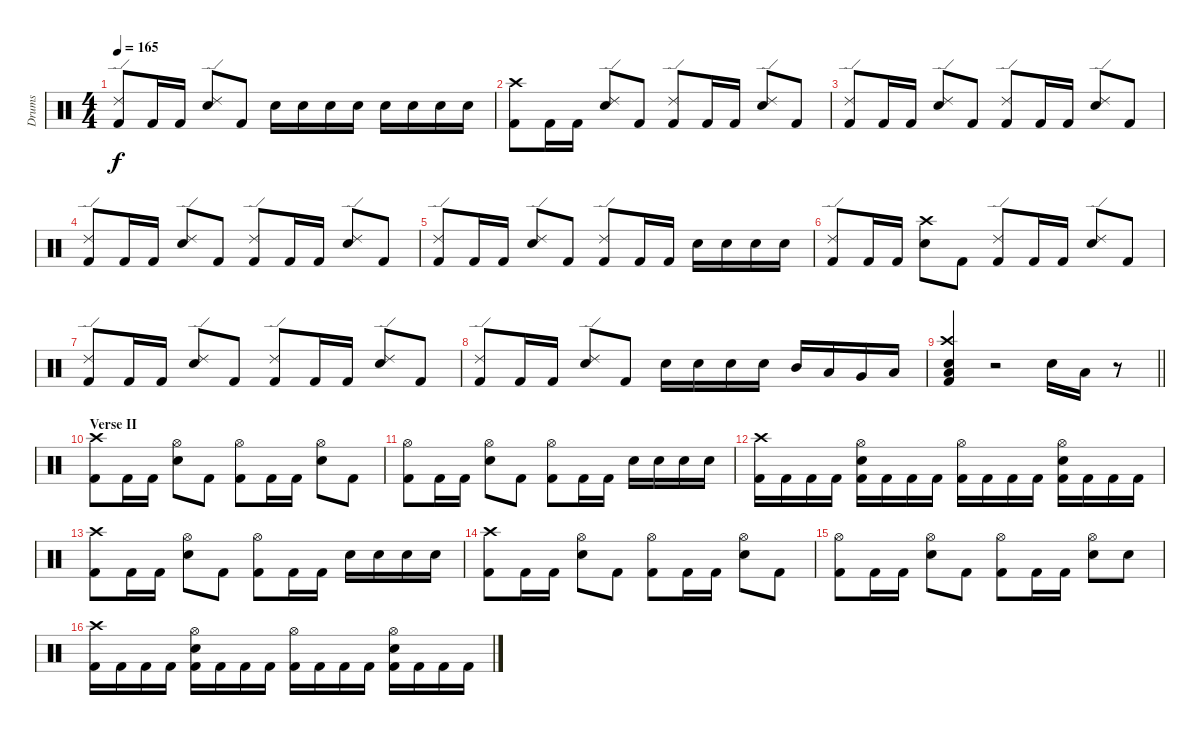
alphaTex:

\track ("Drums" "Drums") {instrument percussion}
\staff {score}
\articulation defaults
\ts (4 4)
\tempo 165
\clef neutral
\ks c
("Ride (edge) 2" "Kick (hit) 2").8{dy f} "Kick (hit) 2".16 "Kick (hit) 2".16 ("Ride (edge) 2" "Snare (hit) 2").8 "Kick (hit) 2".8 "Snare (hit) 2".16 "Snare (hit) 2".16 "Snare (hit) 2".16 "Snare (hit) 2".16 "Snare (hit) 2".16 "Snare (hit) 2".16 "Snare (hit) 2".16 "Snare (hit) 2".16 |
("Crash high (hit)" "Kick (hit) 2").8 "Kick (hit) 2".16 "Kick (hit) 2".16 ("Ride (edge) 2" "Snare (hit) 2").8 "Kick (hit) 2".8 ("Ride (edge) 2" "Kick (hit) 2").8 "Kick (hit) 2".16 "Kick (hit) 2".16 ("Ride (edge) 2" "Snare (hit) 2").8 "Kick (hit) 2".8 |
("Ride (edge) 2" "Kick (hit) 2").8 "Kick (hit) 2".16 "Kick (hit) 2".16 ("Ride (edge) 2" "Snare (hit) 2").8 "Kick (hit) 2".8 ("Ride (edge) 2" "Kick (hit) 2").8 "Kick (hit) 2".16 "Kick (hit) 2".16 ("Ride (edge) 2" "Snare (hit) 2").8 "Kick (hit) 2".8 |
("Ride (edge) 2" "Kick (hit) 2").8 "Kick (hit) 2".16 "Kick (hit) 2".16 ("Ride (edge) 2" "Snare (hit) 2").8 "Kick (hit) 2".8 ("Ride (edge) 2" "Kick (hit) 2").8 "Kick (hit) 2".16 "Kick (hit) 2".16 ("Ride (edge) 2" "Snare (hit) 2").8 "Kick (hit) 2".8 |
("Ride (edge) 2" "Kick (hit) 2").8 "Kick (hit) 2".16 "Kick (hit) 2".16 ("Ride (edge) 2" "Snare (hit) 2").8 "Kick (hit) 2".8 ("Ride (edge) 2" "Kick (hit) 2").8 "Kick (hit) 2".16 "Kick (hit) 2".16 "Snare (hit) 2".16 "Snare (hit) 2".16 "Snare (hit) 2".16 "Snare (hit) 2".16 |
("Ride (edge) 2" "Kick (hit) 2").8 "Kick (hit) 2".16 "Kick (hit) 2".16 ("Crash high (hit)" "Snare (hit) 2").8 "Kick (hit) 2".8 ("Ride (edge) 2" "Kick (hit) 2").8 "Kick (hit) 2".16 "Kick (hit) 2".16 ("Ride (edge) 2" "Snare (hit) 2").8 "Kick (hit) 2".8 |
("Ride (edge) 2" "Kick (hit) 2").8 "Kick (hit) 2".16 "Kick (hit) 2".16 ("Ride (edge) 2" "Snare (hit) 2").8 "Kick (hit) 2".8 ("Ride (edge) 2" "Kick (hit) 2").8 "Kick (hit) 2".16 "Kick (hit) 2".16 ("Ride (edge) 2" "Snare (hit) 2").8 "Kick (hit) 2".8 |
("Ride (edge) 2" "Kick (hit) 2").8 "Kick (hit) 2".16 "Kick (hit) 2".16 ("Ride (edge) 2" "Snare (hit) 2").8 "Kick (hit) 2".8 "Snare (hit) 2".16 "Snare (hit) 2".16 "Snare (hit) 2".16 "Snare (hit) 2".16 "Mid Tom (hit)".16 "Low Tom (hit)".16 "Very Low Tom (hit)".16 "Low Floor Tom (hit)".16 |
\barLineRight lightlight
("Crash high (hit)" "Snare (hit) 2" "Low Floor Tom (hit)" "Kick (hit) 2").4 r.2 "Snare (hit) 2".16 "Low Tom (hit)".16 r.8 |
\section ("" "Verse II")
("Crash high (hit)" "Kick (hit) 2").8 "Kick (hit) 2".16 "Kick (hit) 2".16 ("Hi-Hat (open)" "Snare (hit) 2").8 "Kick (hit) 2".8 ("Hi-Hat (open)" "Kick (hit) 2").8 "Kick (hit) 2".16 "Kick (hit) 2".16 ("Hi-Hat (open)" "Snare (hit) 2").8 "Kick (hit) 2".8 |
("Hi-Hat (open)" "Kick (hit) 2").8 "Kick (hit) 2".16 "Kick (hit) 2".16 ("Hi-Hat (open)" "Snare (hit) 2").8 "Kick (hit) 2".8 ("Hi-Hat (open)" "Kick (hit) 2").8 "Kick (hit) 2".16 "Kick (hit) 2".16 "Snare (hit) 2".16 "Snare (hit) 2".16 "Snare (hit) 2".16 "Snare (hit) 2".16 |
("Crash high (hit)" "Kick (hit) 2").16 "Kick (hit) 2".16 "Kick (hit) 2".16 "Kick (hit) 2".16 ("Hi-Hat (open)" "Snare (hit) 2" "Kick (hit) 2").16 "Kick (hit) 2".16 "Kick (hit) 2".16 "Kick (hit) 2".16 ("Hi-Hat (open)" "Kick (hit) 2").16 "Kick (hit) 2".16 "Kick (hit) 2".16 "Kick (hit) 2".16 ("Hi-Hat (open)" "Snare (hit) 2" "Kick (hit) 2").16 "Kick (hit) 2".16 "Kick (hit) 2".16 "Kick (hit) 2".16 |
("Crash high (hit)" "Kick (hit) 2").8 "Kick (hit) 2".16 "Kick (hit) 2".16 ("Hi-Hat (open)" "Snare (hit) 2").8 "Kick (hit) 2".8 ("Hi-Hat (open)" "Kick (hit) 2").8 "Kick (hit) 2".16 "Kick (hit) 2".16 "Snare (hit) 2".16 "Snare (hit) 2".16 "Snare (hit) 2".16 "Snare (hit) 2".16 |
("Crash high (hit)" "Kick (hit) 2").8 "Kick (hit) 2".16 "Kick (hit) 2".16 ("Hi-Hat (open)" "Snare (hit) 2").8 "Kick (hit) 2".8 ("Hi-Hat (open)" "Kick (hit) 2").8 "Kick (hit) 2".16 "Kick (hit) 2".16 ("Hi-Hat (open)" "Snare (hit) 2").8 "Kick (hit) 2".8 |
("Hi-Hat (open)" "Kick (hit) 2").8 "Kick (hit) 2".16 "Kick (hit) 2".16 ("Hi-Hat (open)" "Snare (hit) 2").8 "Kick (hit) 2".8 ("Hi-Hat (open)" "Kick (hit) 2").8 "Kick (hit) 2".16 "Kick (hit) 2".16 ("Hi-Hat (open)" "Snare (hit) 2").8 "Snare (hit) 2".8 |
("Crash high (hit)" "Kick (hit) 2").16 "Kick (hit) 2".16 "Kick (hit) 2".16 "Kick (hit) 2".16 ("Hi-Hat (open)" "Snare (hit) 2" "Kick (hit) 2").16 "Kick (hit) 2".16 "Kick (hit) 2".16 "Kick (hit) 2".16 ("Hi-Hat (open)" "Kick (hit) 2").16 "Kick (hit) 2".16 "Kick (hit) 2".16 "Kick (hit) 2".16 ("Hi-Hat (open)" "Snare (hit) 2" "Kick (hit) 2").16 "Kick (hit) 2".16 "Kick (hit) 2".16 "Kick (hit) 2".16
